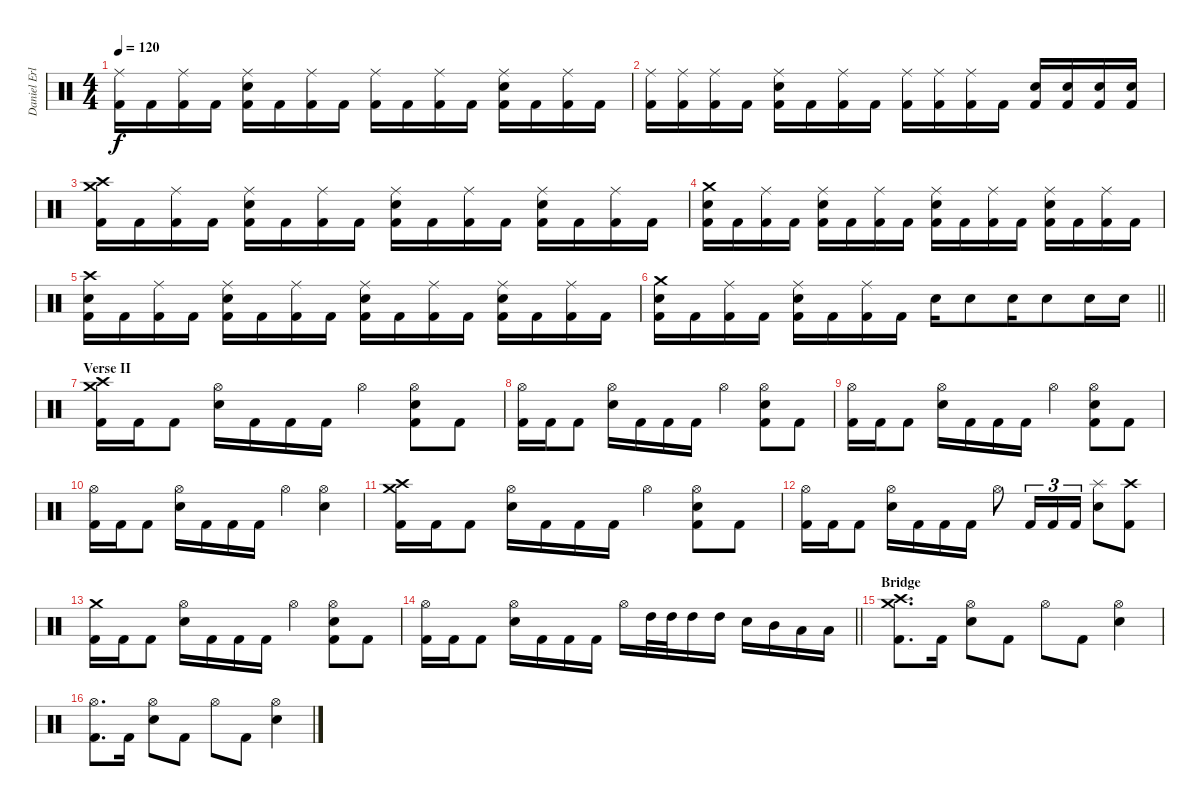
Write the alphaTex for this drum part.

\track ("Daniel Erlandson (Drums)" "Daniel Erl") {instrument percussion}
\staff {score}
\articulation defaults
\ts (4 4)
\tempo 120
\clef neutral
\ks c
("Ride (middle)" "Kick (hit) 2").16{dy f} "Kick (hit) 2".16 ("Ride (middle)" "Kick (hit) 2").16 "Kick (hit) 2".16 ("Ride (middle)" "Electric Snare (hit)" "Kick (hit) 2").16 "Kick (hit) 2".16 ("Ride (middle)" "Kick (hit) 2").16 "Kick (hit) 2".16 ("Ride (middle)" "Kick (hit) 2").16 "Kick (hit) 2".16 ("Ride (middle)" "Kick (hit) 2").16 "Kick (hit) 2".16 ("Ride (middle)" "Electric Snare (hit)" "Kick (hit) 2").16 "Kick (hit) 2".16 ("Ride (middle)" "Kick (hit) 2").16 "Kick (hit) 2".16 |
("Ride (middle)" "Kick (hit) 2").16 ("Ride (middle)" "Kick (hit) 2").16 ("Ride (middle)" "Kick (hit) 2").16 "Kick (hit) 2".16 ("Ride (middle)" "Electric Snare (hit)" "Kick (hit) 2").16 "Kick (hit) 2".16 ("Ride (middle)" "Kick (hit) 2").16 "Kick (hit) 2".16 ("Ride (middle)" "Kick (hit) 2").16 ("Ride (middle)" "Kick (hit) 2").16 ("Ride (middle)" "Kick (hit) 2").16 "Kick (hit) 2".16 ("Electric Snare (hit)" "Kick (hit) 2").16 ("Electric Snare (hit)" "Kick (hit) 2").16 ("Electric Snare (hit)" "Kick (hit) 2").16 ("Electric Snare (hit)" "Kick (hit) 2").16 |
("Crash medium (hit)" "Crash high (hit)" "Kick (hit) 2").16 "Kick (hit) 2".16 ("Ride (middle)" "Kick (hit) 2").16 "Kick (hit) 2".16 ("Ride (middle)" "Electric Snare (hit)" "Kick (hit) 2").16 "Kick (hit) 2".16 ("Ride (middle)" "Kick (hit) 2").16 "Kick (hit) 2".16 ("Ride (middle)" "Electric Snare (hit)" "Kick (hit) 2").16 "Kick (hit) 2".16 ("Ride (middle)" "Kick (hit) 2").16 "Kick (hit) 2".16 ("Ride (middle)" "Electric Snare (hit)" "Kick (hit) 2").16 "Kick (hit) 2".16 ("Ride (middle)" "Kick (hit) 2").16 "Kick (hit) 2".16 |
("Crash medium (hit)" "Electric Snare (hit)" "Kick (hit) 2").16 "Kick (hit) 2".16 ("Ride (middle)" "Kick (hit) 2").16 "Kick (hit) 2".16 ("Ride (middle)" "Electric Snare (hit)" "Kick (hit) 2").16 "Kick (hit) 2".16 ("Ride (middle)" "Kick (hit) 2").16 "Kick (hit) 2".16 ("Ride (middle)" "Electric Snare (hit)" "Kick (hit) 2").16 "Kick (hit) 2".16 ("Ride (middle)" "Kick (hit) 2").16 "Kick (hit) 2".16 ("Ride (middle)" "Electric Snare (hit)" "Kick (hit) 2").16 "Kick (hit) 2".16 ("Ride (middle)" "Kick (hit) 2").16 "Kick (hit) 2".16 |
("Crash high (hit)" "Electric Snare (hit)" "Kick (hit) 2").16 "Kick (hit) 2".16 ("Ride (middle)" "Kick (hit) 2").16 "Kick (hit) 2".16 ("Ride (middle)" "Electric Snare (hit)" "Kick (hit) 2").16 "Kick (hit) 2".16 ("Ride (middle)" "Kick (hit) 2").16 "Kick (hit) 2".16 ("Ride (middle)" "Electric Snare (hit)" "Kick (hit) 2").16 "Kick (hit) 2".16 ("Ride (middle)" "Kick (hit) 2").16 "Kick (hit) 2".16 ("Ride (middle)" "Electric Snare (hit)" "Kick (hit) 2").16 "Kick (hit) 2".16 ("Ride (middle)" "Kick (hit) 2").16 "Kick (hit) 2".16 |
\barLineRight lightlight
("Crash medium (hit)" "Electric Snare (hit)" "Kick (hit) 2").16 "Kick (hit) 2".16 ("Ride (middle)" "Kick (hit) 2").16 "Kick (hit) 2".16 ("Ride (middle)" "Electric Snare (hit)" "Kick (hit) 2").16 "Kick (hit) 2".16 ("Ride (middle)" "Kick (hit) 2").16 "Kick (hit) 2".16 "Electric Snare (hit)".16 "Electric Snare (hit)".8 "Electric Snare (hit)".16{beam merge} "Electric Snare (hit)".8 "Electric Snare (hit)".16 "Electric Snare (hit)".16 |
\section ("" "Verse II")
("Crash medium (hit)" "Crash high (hit)" "Kick (hit) 2").16 "Kick (hit) 2".16 "Kick (hit) 2".8 ("Hi-Hat (open)" "Electric Snare (hit)").16 "Kick (hit) 2".16 "Kick (hit) 2".16 "Kick (hit) 2".16 "Hi-Hat (open)".4 ("Hi-Hat (open)" "Electric Snare (hit)" "Kick (hit) 2").8 "Kick (hit) 2".8 |
("Hi-Hat (open)" "Kick (hit) 2").16 "Kick (hit) 2".16 "Kick (hit) 2".8 ("Hi-Hat (open)" "Electric Snare (hit)").16 "Kick (hit) 2".16 "Kick (hit) 2".16 "Kick (hit) 2".16 "Hi-Hat (open)".4 ("Hi-Hat (open)" "Electric Snare (hit)" "Kick (hit) 2").8 "Kick (hit) 2".8 |
("Hi-Hat (open)" "Kick (hit) 2").16 "Kick (hit) 2".16 "Kick (hit) 2".8 ("Hi-Hat (open)" "Electric Snare (hit)").16 "Kick (hit) 2".16 "Kick (hit) 2".16 "Kick (hit) 2".16 "Hi-Hat (open)".4 ("Hi-Hat (open)" "Electric Snare (hit)" "Kick (hit) 2").8 "Kick (hit) 2".8 |
("Hi-Hat (open)" "Kick (hit) 2").16 "Kick (hit) 2".16 "Kick (hit) 2".8 ("Hi-Hat (open)" "Electric Snare (hit)").16 "Kick (hit) 2".16 "Kick (hit) 2".16 "Kick (hit) 2".16 "Hi-Hat (open)".4 ("Hi-Hat (open)" "Electric Snare (hit)").4 |
("Crash medium (hit)" "Crash high (hit)" "Kick (hit) 2").16 "Kick (hit) 2".16 "Kick (hit) 2".8 ("Hi-Hat (open)" "Electric Snare (hit)").16 "Kick (hit) 2".16 "Kick (hit) 2".16 "Kick (hit) 2".16 "Hi-Hat (open)".4 ("Hi-Hat (open)" "Electric Snare (hit)" "Kick (hit) 2").8 "Kick (hit) 2".8 |
("Hi-Hat (open)" "Kick (hit) 2").16 "Kick (hit) 2".16 "Kick (hit) 2".8 ("Hi-Hat (open)" "Electric Snare (hit)").16 "Kick (hit) 2".16 "Kick (hit) 2".16 "Kick (hit) 2".16 "Hi-Hat (open)".8 "Kick (hit) 2".16{tu (3 2)} "Kick (hit) 2".16{tu (3 2)} "Kick (hit) 2".16{tu (3 2)} ("Splash (hit)" "Electric Snare (hit)").8 ("Crash high (hit)" "Kick (hit) 2").8 |
("Crash medium (hit)" "Kick (hit) 2").16 "Kick (hit) 2".16 "Kick (hit) 2".8 ("Hi-Hat (open)" "Electric Snare (hit)").16 "Kick (hit) 2".16 "Kick (hit) 2".16 "Kick (hit) 2".16 "Hi-Hat (open)".4 ("Hi-Hat (open)" "Electric Snare (hit)" "Kick (hit) 2").8 "Kick (hit) 2".8 |
\barLineRight lightlight
("Hi-Hat (open)" "Kick (hit) 2").16 "Kick (hit) 2".16 "Kick (hit) 2".8 ("Hi-Hat (open)" "Electric Snare (hit)").16 "Kick (hit) 2".16 "Kick (hit) 2".16 "Kick (hit) 2".16 "Hi-Hat (open)".16 "High Tom (hit)".32 "High Tom (hit)".32 "High Tom (hit)".16 "High Tom (hit)".16 "Electric Snare (hit)".16 "Mid Tom (hit)".16 "Low Tom (hit)".16 "Low Tom (hit)".16 |
\section ("" "Bridge")
("Crash medium (hit)" "Crash high (hit)" "Kick (hit) 2").8{d} "Kick (hit) 2".16 ("Hi-Hat (open)" "Electric Snare (hit)").8 "Kick (hit) 2".8 "Hi-Hat (open)".8 "Kick (hit) 2".8 ("Hi-Hat (open)" "Electric Snare (hit)").4 |
("Hi-Hat (open)" "Kick (hit) 2").8{d} "Kick (hit) 2".16 ("Hi-Hat (open)" "Electric Snare (hit)").8 "Kick (hit) 2".8 "Hi-Hat (open)".8 "Kick (hit) 2".8 ("Hi-Hat (open)" "Electric Snare (hit)").4
